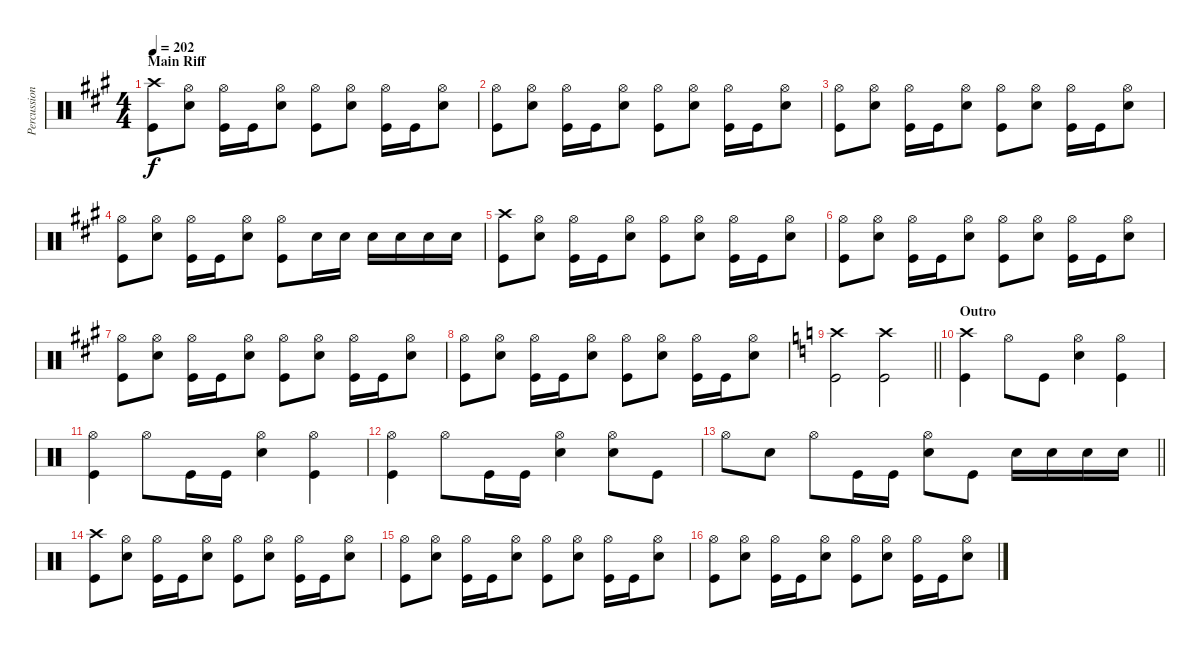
\track ("Percussion" "Percussion") {instrument percussion}
\staff {score}
\articulation defaults
\ts (4 4)
\section ("" "Main Riff")
\tempo 202
\clef neutral
\ks a
("Crash high (hit)" "Kick (hit)").8{dy f} ("Hi-Hat (open)" "Electric Snare (hit)").8 ("Hi-Hat (open)" "Kick (hit)").16 "Kick (hit)".16 ("Hi-Hat (open)" "Electric Snare (hit)").8 ("Hi-Hat (open)" "Kick (hit)").8 ("Hi-Hat (open)" "Electric Snare (hit)").8 ("Hi-Hat (open)" "Kick (hit)").16 "Kick (hit)".16 ("Hi-Hat (open)" "Electric Snare (hit)").8 |
("Hi-Hat (open)" "Kick (hit)").8 ("Hi-Hat (open)" "Electric Snare (hit)").8 ("Hi-Hat (open)" "Kick (hit)").16 "Kick (hit)".16 ("Hi-Hat (open)" "Electric Snare (hit)").8 ("Hi-Hat (open)" "Kick (hit)").8 ("Hi-Hat (open)" "Electric Snare (hit)").8 ("Hi-Hat (open)" "Kick (hit)").16 "Kick (hit)".16 ("Hi-Hat (open)" "Electric Snare (hit)").8 |
("Hi-Hat (open)" "Kick (hit)").8 ("Hi-Hat (open)" "Electric Snare (hit)").8 ("Hi-Hat (open)" "Kick (hit)").16 "Kick (hit)".16 ("Hi-Hat (open)" "Electric Snare (hit)").8 ("Hi-Hat (open)" "Kick (hit)").8 ("Hi-Hat (open)" "Electric Snare (hit)").8 ("Hi-Hat (open)" "Kick (hit)").16 "Kick (hit)".16 ("Hi-Hat (open)" "Electric Snare (hit)").8 |
("Hi-Hat (open)" "Kick (hit)").8 ("Hi-Hat (open)" "Electric Snare (hit)").8 ("Hi-Hat (open)" "Kick (hit)").16 "Kick (hit)".16 ("Hi-Hat (open)" "Electric Snare (hit)").8 ("Hi-Hat (open)" "Kick (hit)").8 "Electric Snare (hit)".16 "Electric Snare (hit)".16 "Electric Snare (hit)".16 "Electric Snare (hit)".16 "Electric Snare (hit)".16 "Electric Snare (hit)".16 |
("Crash high (hit)" "Kick (hit)").8 ("Hi-Hat (open)" "Electric Snare (hit)").8 ("Hi-Hat (open)" "Kick (hit)").16 "Kick (hit)".16 ("Hi-Hat (open)" "Electric Snare (hit)").8 ("Hi-Hat (open)" "Kick (hit)").8 ("Hi-Hat (open)" "Electric Snare (hit)").8 ("Hi-Hat (open)" "Kick (hit)").16 "Kick (hit)".16 ("Hi-Hat (open)" "Electric Snare (hit)").8 |
("Hi-Hat (open)" "Kick (hit)").8 ("Hi-Hat (open)" "Electric Snare (hit)").8 ("Hi-Hat (open)" "Kick (hit)").16 "Kick (hit)".16 ("Hi-Hat (open)" "Electric Snare (hit)").8 ("Hi-Hat (open)" "Kick (hit)").8 ("Hi-Hat (open)" "Electric Snare (hit)").8 ("Hi-Hat (open)" "Kick (hit)").16 "Kick (hit)".16 ("Hi-Hat (open)" "Electric Snare (hit)").8 |
("Hi-Hat (open)" "Kick (hit)").8 ("Hi-Hat (open)" "Electric Snare (hit)").8 ("Hi-Hat (open)" "Kick (hit)").16 "Kick (hit)".16 ("Hi-Hat (open)" "Electric Snare (hit)").8 ("Hi-Hat (open)" "Kick (hit)").8 ("Hi-Hat (open)" "Electric Snare (hit)").8 ("Hi-Hat (open)" "Kick (hit)").16 "Kick (hit)".16 ("Hi-Hat (open)" "Electric Snare (hit)").8 |
("Hi-Hat (open)" "Kick (hit)").8 ("Hi-Hat (open)" "Electric Snare (hit)").8 ("Hi-Hat (open)" "Kick (hit)").16 "Kick (hit)".16 ("Hi-Hat (open)" "Electric Snare (hit)").8 ("Hi-Hat (open)" "Kick (hit)").8 ("Hi-Hat (open)" "Electric Snare (hit)").8 ("Hi-Hat (open)" "Kick (hit)").16 "Kick (hit)".16 ("Hi-Hat (open)" "Electric Snare (hit)").8 |
\barLineRight lightlight
\ks c
("Crash high (hit)" "Kick (hit)").2 ("Crash high (hit)" "Kick (hit)").2 |
\section ("" "Outro")
("Crash high (hit)" "Kick (hit)").4 "Hi-Hat (open)".8 "Kick (hit)".8 ("Hi-Hat (open)" "Electric Snare (hit)").4 ("Hi-Hat (open)" "Kick (hit)").4 |
("Hi-Hat (open)" "Kick (hit)").4 "Hi-Hat (open)".8 "Kick (hit)".16 "Kick (hit)".16 ("Hi-Hat (open)" "Electric Snare (hit)").4 ("Hi-Hat (open)" "Kick (hit)").4 |
("Hi-Hat (open)" "Kick (hit)").4 "Hi-Hat (open)".8 "Kick (hit)".16 "Kick (hit)".16 ("Hi-Hat (open)" "Electric Snare (hit)").4 ("Hi-Hat (open)" "Electric Snare (hit)").8 "Kick (hit)".8 |
\barLineRight lightlight "Hi-Hat (open)".8 "Electric Snare (hit)".8 "Hi-Hat (open)".8 "Kick (hit)".16 "Kick (hit)".16
("Hi-Hat (open)" "Electric Snare (hit)").8 "Kick (hit)".8 "Electric Snare (hit)".16 "Electric Snare (hit)".16 "Electric Snare (hit)".16 "Electric Snare (hit)".16 |
("Crash high (hit)" "Kick (hit)").8 ("Hi-Hat (open)" "Electric Snare (hit)").8 ("Hi-Hat (open)" "Kick (hit)").16 "Kick (hit)".16 ("Hi-Hat (open)" "Electric Snare (hit)").8 ("Hi-Hat (open)" "Kick (hit)").8 ("Hi-Hat (open)" "Electric Snare (hit)").8 ("Hi-Hat (open)" "Kick (hit)").16 "Kick (hit)".16 ("Hi-Hat (open)" "Electric Snare (hit)").8 |
("Hi-Hat (open)" "Kick (hit)").8 ("Hi-Hat (open)" "Electric Snare (hit)").8 ("Hi-Hat (open)" "Kick (hit)").16 "Kick (hit)".16 ("Hi-Hat (open)" "Electric Snare (hit)").8 ("Hi-Hat (open)" "Kick (hit)").8 ("Hi-Hat (open)" "Electric Snare (hit)").8 ("Hi-Hat (open)" "Kick (hit)").16 "Kick (hit)".16 ("Hi-Hat (open)" "Electric Snare (hit)").8 |
("Hi-Hat (open)" "Kick (hit)").8 ("Hi-Hat (open)" "Electric Snare (hit)").8 ("Hi-Hat (open)" "Kick (hit)").16 "Kick (hit)".16 ("Hi-Hat (open)" "Electric Snare (hit)").8 ("Hi-Hat (open)" "Kick (hit)").8 ("Hi-Hat (open)" "Electric Snare (hit)").8 ("Hi-Hat (open)" "Kick (hit)").16 "Kick (hit)".16 ("Hi-Hat (open)" "Electric Snare (hit)").8
